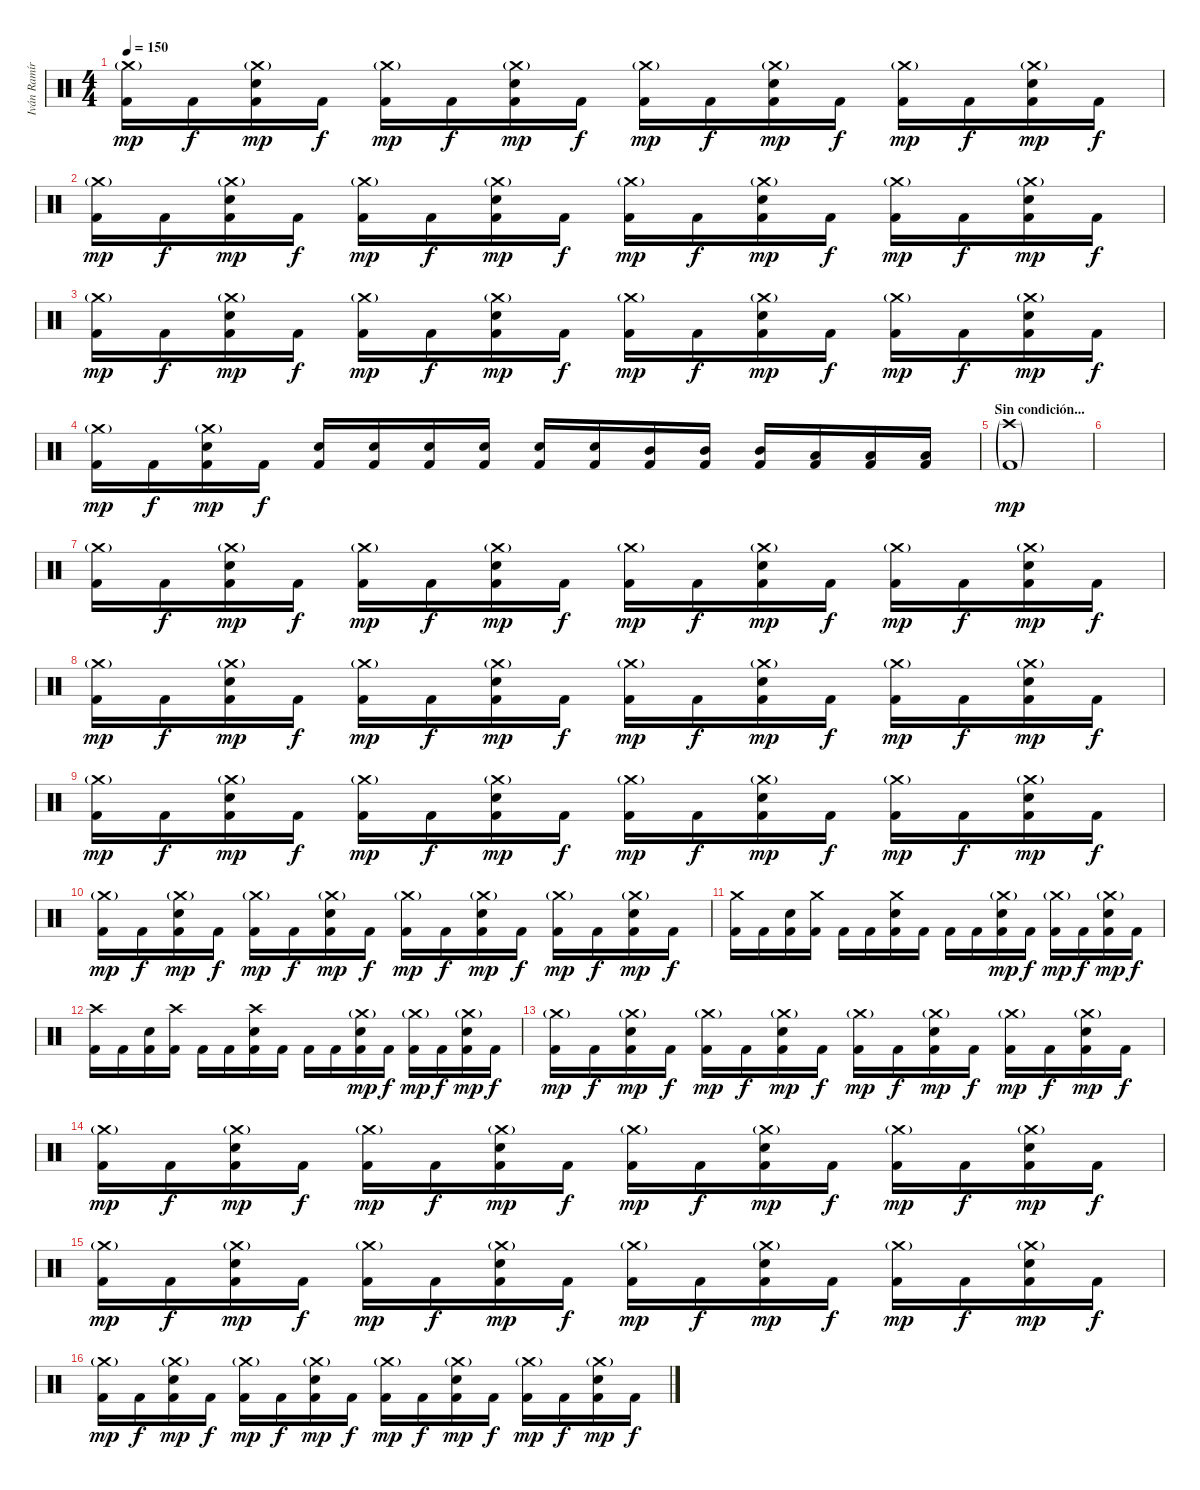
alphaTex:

\track ("Iván Ramírez" "Iván Ramír") {instrument percussion}
\staff {score}
\articulation defaults
\ts (4 4)
\tempo 150
\clef neutral
\ks c
("Crash medium (hit)"{g} "Kick (hit) 2").16{dy mp} "Kick (hit) 2".16{dy f} ("Crash medium (hit)"{g} "Electric Snare (hit)" "Kick (hit) 2").16{dy mp} "Kick (hit) 2".16{dy f} ("Crash medium (hit)"{g} "Kick (hit) 2").16{dy mp} "Kick (hit) 2".16{dy f} ("Crash medium (hit)"{g} "Electric Snare (hit)" "Kick (hit) 2").16{dy mp} "Kick (hit) 2".16{dy f} ("Crash medium (hit)"{g} "Kick (hit) 2").16{dy mp} "Kick (hit) 2".16{dy f} ("Crash medium (hit)"{g} "Electric Snare (hit)" "Kick (hit) 2").16{dy mp} "Kick (hit) 2".16{dy f} ("Crash medium (hit)"{g} "Kick (hit) 2").16{dy mp} "Kick (hit) 2".16{dy f} ("Crash medium (hit)"{g} "Electric Snare (hit)" "Kick (hit) 2").16{dy mp} "Kick (hit) 2".16{dy f} |
("Crash medium (hit)"{g} "Kick (hit) 2").16{dy mp} "Kick (hit) 2".16{dy f} ("Crash medium (hit)"{g} "Electric Snare (hit)" "Kick (hit) 2").16{dy mp} "Kick (hit) 2".16{dy f} ("Crash medium (hit)"{g} "Kick (hit) 2").16{dy mp} "Kick (hit) 2".16{dy f} ("Crash medium (hit)"{g} "Electric Snare (hit)" "Kick (hit) 2").16{dy mp} "Kick (hit) 2".16{dy f} ("Crash medium (hit)"{g} "Kick (hit) 2").16{dy mp} "Kick (hit) 2".16{dy f} ("Crash medium (hit)"{g} "Electric Snare (hit)" "Kick (hit) 2").16{dy mp} "Kick (hit) 2".16{dy f} ("Crash medium (hit)"{g} "Kick (hit) 2").16{dy mp} "Kick (hit) 2".16{dy f} ("Crash medium (hit)"{g} "Electric Snare (hit)" "Kick (hit) 2").16{dy mp} "Kick (hit) 2".16{dy f} |
("Crash medium (hit)"{g} "Kick (hit) 2").16{dy mp} "Kick (hit) 2".16{dy f} ("Crash medium (hit)"{g} "Electric Snare (hit)" "Kick (hit) 2").16{dy mp} "Kick (hit) 2".16{dy f} ("Crash medium (hit)"{g} "Kick (hit) 2").16{dy mp} "Kick (hit) 2".16{dy f} ("Crash medium (hit)"{g} "Electric Snare (hit)" "Kick (hit) 2").16{dy mp} "Kick (hit) 2".16{dy f} ("Crash medium (hit)"{g} "Kick (hit) 2").16{dy mp} "Kick (hit) 2".16{dy f} ("Crash medium (hit)"{g} "Electric Snare (hit)" "Kick (hit) 2").16{dy mp} "Kick (hit) 2".16{dy f} ("Crash medium (hit)"{g} "Kick (hit) 2").16{dy mp} "Kick (hit) 2".16{dy f} ("Crash medium (hit)"{g} "Electric Snare (hit)" "Kick (hit) 2").16{dy mp} "Kick (hit) 2".16{dy f} |
("Crash medium (hit)"{g} "Kick (hit) 2").16{dy mp} "Kick (hit) 2".16{dy f} ("Crash medium (hit)"{g} "Electric Snare (hit)" "Kick (hit) 2").16{dy mp} "Kick (hit) 2".16{dy f} ("Electric Snare (hit)" "Kick (hit) 2").16 ("Electric Snare (hit)" "Kick (hit) 2").16 ("Electric Snare (hit)" "Kick (hit) 2").16 ("Electric Snare (hit)" "Kick (hit) 2").16 ("Electric Snare (hit)" "Kick (hit) 2").16 ("Electric Snare (hit)" "Kick (hit) 2").16 ("Mid Tom (hit)" "Kick (hit) 2").16 ("Mid Tom (hit)" "Kick (hit) 2").16 ("Mid Tom (hit)" "Kick (hit) 2").16 ("Low Tom (hit)" "Kick (hit) 2").16 ("Low Tom (hit)" "Kick (hit) 2").16 ("Low Tom (hit)" "Kick (hit) 2").16 |
\section ("" "Sin condición...")
("Crash high (hit)"{g} "Kick (hit) 2"{g}).1{dy mp} |
|
("Crash medium (hit)"{g} "Kick (hit) 2").16 "Kick (hit) 2".16{dy f} ("Crash medium (hit)"{g} "Electric Snare (hit)" "Kick (hit) 2").16{dy mp} "Kick (hit) 2".16{dy f} ("Crash medium (hit)"{g} "Kick (hit) 2").16{dy mp} "Kick (hit) 2".16{dy f} ("Crash medium (hit)"{g} "Electric Snare (hit)" "Kick (hit) 2").16{dy mp} "Kick (hit) 2".16{dy f} ("Crash medium (hit)"{g} "Kick (hit) 2").16{dy mp} "Kick (hit) 2".16{dy f} ("Crash medium (hit)"{g} "Electric Snare (hit)" "Kick (hit) 2").16{dy mp} "Kick (hit) 2".16{dy f} ("Crash medium (hit)"{g} "Kick (hit) 2").16{dy mp} "Kick (hit) 2".16{dy f} ("Crash medium (hit)"{g} "Electric Snare (hit)" "Kick (hit) 2").16{dy mp} "Kick (hit) 2".16{dy f} |
("Crash medium (hit)"{g} "Kick (hit) 2").16{dy mp} "Kick (hit) 2".16{dy f} ("Crash medium (hit)"{g} "Electric Snare (hit)" "Kick (hit) 2").16{dy mp} "Kick (hit) 2".16{dy f} ("Crash medium (hit)"{g} "Kick (hit) 2").16{dy mp} "Kick (hit) 2".16{dy f} ("Crash medium (hit)"{g} "Electric Snare (hit)" "Kick (hit) 2").16{dy mp} "Kick (hit) 2".16{dy f} ("Crash medium (hit)"{g} "Kick (hit) 2").16{dy mp} "Kick (hit) 2".16{dy f} ("Crash medium (hit)"{g} "Electric Snare (hit)" "Kick (hit) 2").16{dy mp} "Kick (hit) 2".16{dy f} ("Crash medium (hit)"{g} "Kick (hit) 2").16{dy mp} "Kick (hit) 2".16{dy f} ("Crash medium (hit)"{g} "Electric Snare (hit)" "Kick (hit) 2").16{dy mp} "Kick (hit) 2".16{dy f} |
("Crash medium (hit)"{g} "Kick (hit) 2").16{dy mp} "Kick (hit) 2".16{dy f} ("Crash medium (hit)"{g} "Electric Snare (hit)" "Kick (hit) 2").16{dy mp} "Kick (hit) 2".16{dy f} ("Crash medium (hit)"{g} "Kick (hit) 2").16{dy mp} "Kick (hit) 2".16{dy f} ("Crash medium (hit)"{g} "Electric Snare (hit)" "Kick (hit) 2").16{dy mp} "Kick (hit) 2".16{dy f} ("Crash medium (hit)"{g} "Kick (hit) 2").16{dy mp} "Kick (hit) 2".16{dy f} ("Crash medium (hit)"{g} "Electric Snare (hit)" "Kick (hit) 2").16{dy mp} "Kick (hit) 2".16{dy f} ("Crash medium (hit)"{g} "Kick (hit) 2").16{dy mp} "Kick (hit) 2".16{dy f} ("Crash medium (hit)"{g} "Electric Snare (hit)" "Kick (hit) 2").16{dy mp} "Kick (hit) 2".16{dy f} |
("Crash medium (hit)"{g} "Kick (hit) 2").16{dy mp} "Kick (hit) 2".16{dy f} ("Crash medium (hit)"{g} "Electric Snare (hit)" "Kick (hit) 2").16{dy mp} "Kick (hit) 2".16{dy f} ("Crash medium (hit)"{g} "Kick (hit) 2").16{dy mp} "Kick (hit) 2".16{dy f} ("Crash medium (hit)"{g} "Electric Snare (hit)" "Kick (hit) 2").16{dy mp} "Kick (hit) 2".16{dy f} ("Crash medium (hit)"{g} "Kick (hit) 2").16{dy mp} "Kick (hit) 2".16{dy f} ("Crash medium (hit)"{g} "Electric Snare (hit)" "Kick (hit) 2").16{dy mp} "Kick (hit) 2".16{dy f} ("Crash medium (hit)"{g} "Kick (hit) 2").16{dy mp} "Kick (hit) 2".16{dy f} ("Crash medium (hit)"{g} "Electric Snare (hit)" "Kick (hit) 2").16{dy mp} "Kick (hit) 2".16{dy f} |
("Crash medium (hit)" "Kick (hit) 2").16 "Kick (hit) 2".16 ("Electric Snare (hit)" "Kick (hit) 2").16 ("Crash medium (hit)" "Kick (hit) 2").16 "Kick (hit) 2".16 "Kick (hit) 2".16 ("Crash medium (hit)" "Electric Snare (hit)" "Kick (hit) 2").16 "Kick (hit) 2".16 "Kick (hit) 2".16 "Kick (hit) 2".16 ("Crash medium (hit)"{g} "Electric Snare (hit)" "Kick (hit) 2").16{dy mp} "Kick (hit) 2".16{dy f} ("Crash medium (hit)"{g} "Kick (hit) 2").16{dy mp} "Kick (hit) 2".16{dy f} ("Crash medium (hit)"{g} "Electric Snare (hit)" "Kick (hit) 2").16{dy mp} "Kick (hit) 2".16{dy f} |
("Crash high (hit)" "Kick (hit) 2").16 "Kick (hit) 2".16 ("Electric Snare (hit)" "Kick (hit) 2").16 ("Crash high (hit)" "Kick (hit) 2").16 "Kick (hit) 2".16 "Kick (hit) 2".16 ("Crash high (hit)" "Electric Snare (hit)" "Kick (hit) 2").16 "Kick (hit) 2".16 "Kick (hit) 2".16 "Kick (hit) 2".16 ("Crash medium (hit)"{g} "Electric Snare (hit)" "Kick (hit) 2").16{dy mp} "Kick (hit) 2".16{dy f} ("Crash medium (hit)"{g} "Kick (hit) 2").16{dy mp} "Kick (hit) 2".16{dy f} ("Crash medium (hit)"{g} "Electric Snare (hit)" "Kick (hit) 2").16{dy mp} "Kick (hit) 2".16{dy f} |
("Crash medium (hit)"{g} "Kick (hit) 2").16{dy mp} "Kick (hit) 2".16{dy f} ("Crash medium (hit)"{g} "Electric Snare (hit)" "Kick (hit) 2").16{dy mp} "Kick (hit) 2".16{dy f} ("Crash medium (hit)"{g} "Kick (hit) 2").16{dy mp} "Kick (hit) 2".16{dy f} ("Crash medium (hit)"{g} "Electric Snare (hit)" "Kick (hit) 2").16{dy mp} "Kick (hit) 2".16{dy f} ("Crash medium (hit)"{g} "Kick (hit) 2").16{dy mp} "Kick (hit) 2".16{dy f} ("Crash medium (hit)"{g} "Electric Snare (hit)" "Kick (hit) 2").16{dy mp} "Kick (hit) 2".16{dy f} ("Crash medium (hit)"{g} "Kick (hit) 2").16{dy mp} "Kick (hit) 2".16{dy f} ("Crash medium (hit)"{g} "Electric Snare (hit)" "Kick (hit) 2").16{dy mp} "Kick (hit) 2".16{dy f} |
("Crash medium (hit)"{g} "Kick (hit) 2").16{dy mp} "Kick (hit) 2".16{dy f} ("Crash medium (hit)"{g} "Electric Snare (hit)" "Kick (hit) 2").16{dy mp} "Kick (hit) 2".16{dy f} ("Crash medium (hit)"{g} "Kick (hit) 2").16{dy mp} "Kick (hit) 2".16{dy f} ("Crash medium (hit)"{g} "Electric Snare (hit)" "Kick (hit) 2").16{dy mp} "Kick (hit) 2".16{dy f} ("Crash medium (hit)"{g} "Kick (hit) 2").16{dy mp} "Kick (hit) 2".16{dy f} ("Crash medium (hit)"{g} "Electric Snare (hit)" "Kick (hit) 2").16{dy mp} "Kick (hit) 2".16{dy f} ("Crash medium (hit)"{g} "Kick (hit) 2").16{dy mp} "Kick (hit) 2".16{dy f} ("Crash medium (hit)"{g} "Electric Snare (hit)" "Kick (hit) 2").16{dy mp} "Kick (hit) 2".16{dy f} |
("Crash medium (hit)"{g} "Kick (hit) 2").16{dy mp} "Kick (hit) 2".16{dy f} ("Crash medium (hit)"{g} "Electric Snare (hit)" "Kick (hit) 2").16{dy mp} "Kick (hit) 2".16{dy f} ("Crash medium (hit)"{g} "Kick (hit) 2").16{dy mp} "Kick (hit) 2".16{dy f} ("Crash medium (hit)"{g} "Electric Snare (hit)" "Kick (hit) 2").16{dy mp} "Kick (hit) 2".16{dy f} ("Crash medium (hit)"{g} "Kick (hit) 2").16{dy mp} "Kick (hit) 2".16{dy f} ("Crash medium (hit)"{g} "Electric Snare (hit)" "Kick (hit) 2").16{dy mp} "Kick (hit) 2".16{dy f} ("Crash medium (hit)"{g} "Kick (hit) 2").16{dy mp} "Kick (hit) 2".16{dy f} ("Crash medium (hit)"{g} "Electric Snare (hit)" "Kick (hit) 2").16{dy mp} "Kick (hit) 2".16{dy f} |
("Crash medium (hit)"{g} "Kick (hit) 2").16{dy mp} "Kick (hit) 2".16{dy f} ("Crash medium (hit)"{g} "Electric Snare (hit)" "Kick (hit) 2").16{dy mp} "Kick (hit) 2".16{dy f} ("Crash medium (hit)"{g} "Kick (hit) 2").16{dy mp} "Kick (hit) 2".16{dy f} ("Crash medium (hit)"{g} "Electric Snare (hit)" "Kick (hit) 2").16{dy mp} "Kick (hit) 2".16{dy f} ("Crash medium (hit)"{g} "Kick (hit) 2").16{dy mp} "Kick (hit) 2".16{dy f} ("Crash medium (hit)"{g} "Electric Snare (hit)" "Kick (hit) 2").16{dy mp} "Kick (hit) 2".16{dy f} ("Crash medium (hit)"{g} "Kick (hit) 2").16{dy mp} "Kick (hit) 2".16{dy f} ("Crash medium (hit)"{g} "Electric Snare (hit)" "Kick (hit) 2").16{dy mp} "Kick (hit) 2".16{dy f}
